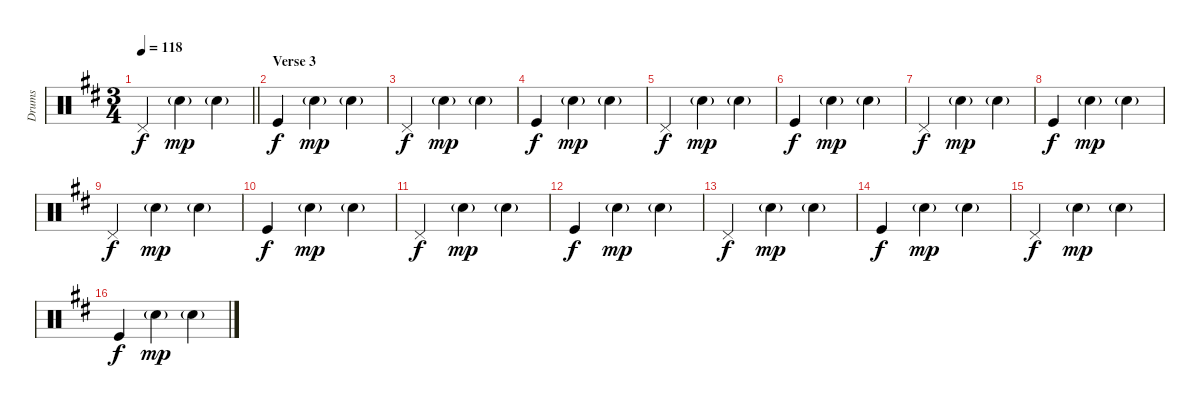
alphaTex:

\track ("Drums" "Drums") {instrument percussion}
\staff {score}
\articulation defaults
\ts (3 4)
\tempo 118
\clef neutral
\barLineRight lightlight
\ks d "Pedal Hi-Hat (hit)".4{dy f} "Snare (hit) 2"{g}.4{dy mp} "Snare (hit) 2"{g}.4
|
\section ("" "Verse 3")
"Kick (hit)".4{dy f} "Snare (hit) 2"{g}.4{dy mp} "Snare (hit) 2"{g}.4 |
"Pedal Hi-Hat (hit)".4{dy f} "Snare (hit) 2"{g}.4{dy mp} "Snare (hit) 2"{g}.4 |
"Kick (hit)".4{dy f} "Snare (hit) 2"{g}.4{dy mp} "Snare (hit) 2"{g}.4 |
"Pedal Hi-Hat (hit)".4{dy f} "Snare (hit) 2"{g}.4{dy mp} "Snare (hit) 2"{g}.4 |
"Kick (hit)".4{dy f} "Snare (hit) 2"{g}.4{dy mp} "Snare (hit) 2"{g}.4 |
"Pedal Hi-Hat (hit)".4{dy f} "Snare (hit) 2"{g}.4{dy mp} "Snare (hit) 2"{g}.4 |
"Kick (hit)".4{dy f} "Snare (hit) 2"{g}.4{dy mp} "Snare (hit) 2"{g}.4 |
"Pedal Hi-Hat (hit)".4{dy f} "Snare (hit) 2"{g}.4{dy mp} "Snare (hit) 2"{g}.4 |
"Kick (hit)".4{dy f} "Snare (hit) 2"{g}.4{dy mp} "Snare (hit) 2"{g}.4 |
"Pedal Hi-Hat (hit)".4{dy f} "Snare (hit) 2"{g}.4{dy mp} "Snare (hit) 2"{g}.4 |
"Kick (hit)".4{dy f} "Snare (hit) 2"{g}.4{dy mp} "Snare (hit) 2"{g}.4 |
"Pedal Hi-Hat (hit)".4{dy f} "Snare (hit) 2"{g}.4{dy mp} "Snare (hit) 2"{g}.4 |
"Kick (hit)".4{dy f} "Snare (hit) 2"{g}.4{dy mp} "Snare (hit) 2"{g}.4 |
"Pedal Hi-Hat (hit)".4{dy f} "Snare (hit) 2"{g}.4{dy mp} "Snare (hit) 2"{g}.4 |
"Kick (hit)".4{dy f} "Snare (hit) 2"{g}.4{dy mp} "Snare (hit) 2"{g}.4
